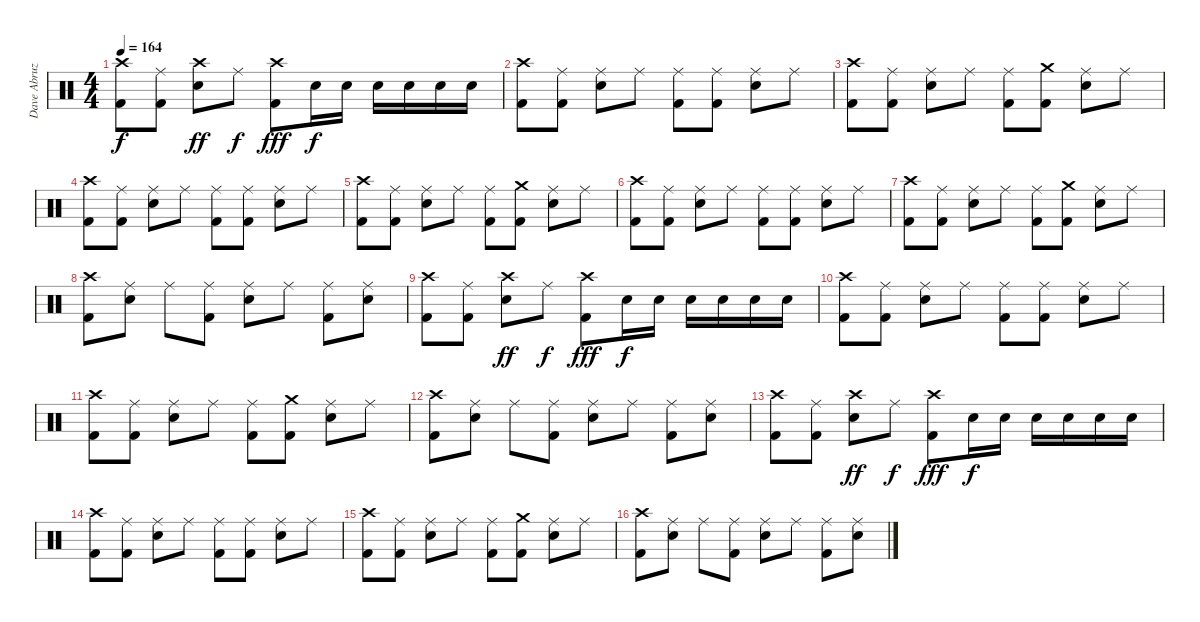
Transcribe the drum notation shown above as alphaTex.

\track ("Dave Abruzzese" "Dave Abruz") {instrument percussion}
\staff {score}
\articulation defaults
\ts (4 4)
\tempo 164
\clef neutral
\ks c
("Crash high (hit)" "Kick (hit) 2").8{dy f} ("Kick (hit) 2" "Ride (middle)").8 ("Crash high (hit)" "Electric Snare (hit)").8{dy ff} "Ride (middle)".8{dy f} ("Crash high (hit)" "Kick (hit) 2").8{dy fff} "Electric Snare (hit)".16{dy f} "Electric Snare (hit)".16 "Electric Snare (hit)".16 "Electric Snare (hit)".16 "Electric Snare (hit)".16 "Electric Snare (hit)".16 |
("Kick (hit) 2" "Crash high (hit)").8 ("Kick (hit) 2" "Ride (middle)").8 ("Electric Snare (hit)" "Ride (middle)").8 "Ride (middle)".8 ("Kick (hit) 2" "Ride (middle)").8 ("Kick (hit) 2" "Ride (middle)").8 ("Electric Snare (hit)" "Ride (middle)").8 "Ride (middle)".8 |
("Kick (hit) 2" "Crash high (hit)").8 ("Kick (hit) 2" "Ride (middle)").8 ("Electric Snare (hit)" "Ride (middle)").8 "Ride (middle)".8 ("Kick (hit) 2" "Ride (middle)").8 ("Kick (hit) 2" "Crash medium (hit)").8 ("Electric Snare (hit)" "Ride (middle)").8 "Ride (middle)".8 |
("Kick (hit) 2" "Crash high (hit)").8 ("Kick (hit) 2" "Ride (middle)").8 ("Electric Snare (hit)" "Ride (middle)").8 "Ride (middle)".8 ("Kick (hit) 2" "Ride (middle)").8 ("Kick (hit) 2" "Ride (middle)").8 ("Electric Snare (hit)" "Ride (middle)").8 "Ride (middle)".8 |
("Kick (hit) 2" "Crash high (hit)").8 ("Kick (hit) 2" "Ride (middle)").8 ("Electric Snare (hit)" "Ride (middle)").8 "Ride (middle)".8 ("Kick (hit) 2" "Ride (middle)").8 ("Kick (hit) 2" "Crash medium (hit)").8 ("Electric Snare (hit)" "Ride (middle)").8 "Ride (middle)".8 |
("Kick (hit) 2" "Crash high (hit)").8 ("Kick (hit) 2" "Ride (middle)").8 ("Electric Snare (hit)" "Ride (middle)").8 "Ride (middle)".8 ("Kick (hit) 2" "Ride (middle)").8 ("Kick (hit) 2" "Ride (middle)").8 ("Electric Snare (hit)" "Ride (middle)").8 "Ride (middle)".8 |
("Kick (hit) 2" "Crash high (hit)").8 ("Kick (hit) 2" "Ride (middle)").8 ("Electric Snare (hit)" "Ride (middle)").8 "Ride (middle)".8 ("Kick (hit) 2" "Ride (middle)").8 ("Kick (hit) 2" "Crash medium (hit)").8 ("Electric Snare (hit)" "Ride (middle)").8 "Ride (middle)".8 |
("Kick (hit) 2" "Crash high (hit)").8 ("Electric Snare (hit)" "Ride (middle)").8 "Ride (middle)".8 ("Kick (hit) 2" "Ride (middle)").8 ("Electric Snare (hit)" "Ride (middle)").8 "Ride (middle)".8 ("Kick (hit) 2" "Ride (middle)").8 ("Electric Snare (hit)" "Ride (middle)").8 |
("Crash high (hit)" "Kick (hit) 2").8 ("Kick (hit) 2" "Ride (middle)").8 ("Crash high (hit)" "Electric Snare (hit)").8{dy ff} "Ride (middle)".8{dy f} ("Crash high (hit)" "Kick (hit) 2").8{dy fff} "Electric Snare (hit)".16{dy f} "Electric Snare (hit)".16 "Electric Snare (hit)".16 "Electric Snare (hit)".16 "Electric Snare (hit)".16 "Electric Snare (hit)".16 |
\section ("" "")
("Kick (hit) 2" "Crash high (hit)").8 ("Kick (hit) 2" "Ride (middle)").8 ("Electric Snare (hit)" "Ride (middle)").8 "Ride (middle)".8 ("Kick (hit) 2" "Ride (middle)").8 ("Kick (hit) 2" "Ride (middle)").8 ("Electric Snare (hit)" "Ride (middle)").8 "Ride (middle)".8 |
("Kick (hit) 2" "Crash high (hit)").8 ("Kick (hit) 2" "Ride (middle)").8 ("Electric Snare (hit)" "Ride (middle)").8 "Ride (middle)".8 ("Kick (hit) 2" "Ride (middle)").8 ("Kick (hit) 2" "Crash medium (hit)").8 ("Electric Snare (hit)" "Ride (middle)").8 "Ride (middle)".8 |
("Kick (hit) 2" "Crash high (hit)").8 ("Electric Snare (hit)" "Ride (middle)").8 "Ride (middle)".8 ("Kick (hit) 2" "Ride (middle)").8 ("Electric Snare (hit)" "Ride (middle)").8 "Ride (middle)".8 ("Kick (hit) 2" "Ride (middle)").8 ("Electric Snare (hit)" "Ride (middle)").8 |
("Crash high (hit)" "Kick (hit) 2").8 ("Kick (hit) 2" "Ride (middle)").8 ("Crash high (hit)" "Electric Snare (hit)").8{dy ff} "Ride (middle)".8{dy f} ("Crash high (hit)" "Kick (hit) 2").8{dy fff} "Electric Snare (hit)".16{dy f} "Electric Snare (hit)".16 "Electric Snare (hit)".16 "Electric Snare (hit)".16 "Electric Snare (hit)".16 "Electric Snare (hit)".16 |
("Kick (hit) 2" "Crash high (hit)").8 ("Kick (hit) 2" "Ride (middle)").8 ("Electric Snare (hit)" "Ride (middle)").8 "Ride (middle)".8 ("Kick (hit) 2" "Ride (middle)").8 ("Kick (hit) 2" "Ride (middle)").8 ("Electric Snare (hit)" "Ride (middle)").8 "Ride (middle)".8 |
("Kick (hit) 2" "Crash high (hit)").8 ("Kick (hit) 2" "Ride (middle)").8 ("Electric Snare (hit)" "Ride (middle)").8 "Ride (middle)".8 ("Kick (hit) 2" "Ride (middle)").8 ("Kick (hit) 2" "Crash medium (hit)").8 ("Electric Snare (hit)" "Ride (middle)").8 "Ride (middle)".8 |
("Kick (hit) 2" "Crash high (hit)").8 ("Electric Snare (hit)" "Ride (middle)").8 "Ride (middle)".8 ("Kick (hit) 2" "Ride (middle)").8 ("Electric Snare (hit)" "Ride (middle)").8 "Ride (middle)".8 ("Kick (hit) 2" "Ride (middle)").8 ("Electric Snare (hit)" "Ride (middle)").8
